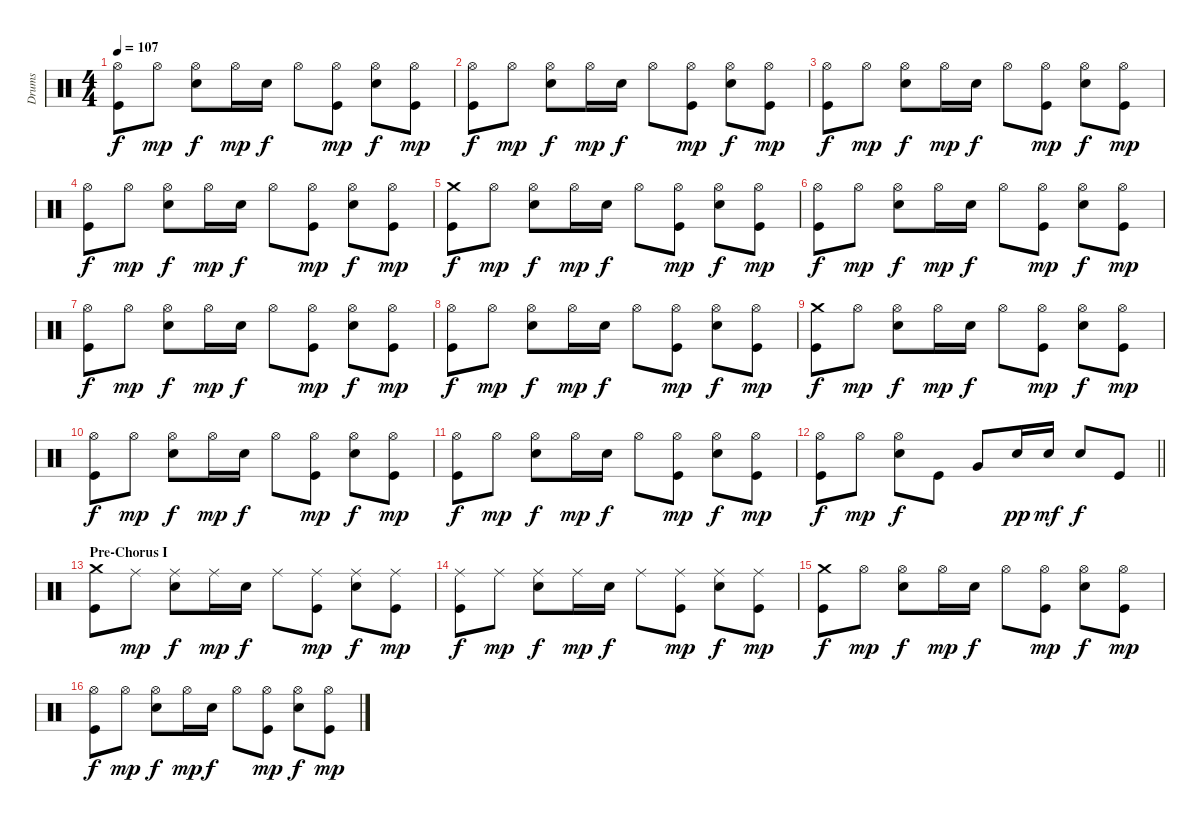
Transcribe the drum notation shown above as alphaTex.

\track ("Drums" "Drums") {instrument percussion}
\staff {score}
\articulation defaults
\ts (4 4)
\tempo 107
\clef neutral
\ks c
("Hi-Hat (open)" "Kick (hit)").8{dy f} "Hi-Hat (open)".8{dy mp} ("Hi-Hat (open)" "Electric Snare (hit)").8{dy f} "Hi-Hat (open)".16{dy mp} "Electric Snare (hit)".16{dy f} "Hi-Hat (open)".8 ("Hi-Hat (open)" "Kick (hit)").8{dy mp} ("Hi-Hat (open)" "Electric Snare (hit)").8{dy f} ("Hi-Hat (open)" "Kick (hit)").8{dy mp} |
("Hi-Hat (open)" "Kick (hit)").8{dy f} "Hi-Hat (open)".8{dy mp} ("Hi-Hat (open)" "Electric Snare (hit)").8{dy f} "Hi-Hat (open)".16{dy mp} "Electric Snare (hit)".16{dy f} "Hi-Hat (open)".8 ("Hi-Hat (open)" "Kick (hit)").8{dy mp} ("Hi-Hat (open)" "Electric Snare (hit)").8{dy f} ("Hi-Hat (open)" "Kick (hit)").8{dy mp} |
("Hi-Hat (open)" "Kick (hit)").8{dy f} "Hi-Hat (open)".8{dy mp} ("Hi-Hat (open)" "Electric Snare (hit)").8{dy f} "Hi-Hat (open)".16{dy mp} "Electric Snare (hit)".16{dy f} "Hi-Hat (open)".8 ("Hi-Hat (open)" "Kick (hit)").8{dy mp} ("Hi-Hat (open)" "Electric Snare (hit)").8{dy f} ("Hi-Hat (open)" "Kick (hit)").8{dy mp} |
("Hi-Hat (open)" "Kick (hit)").8{dy f} "Hi-Hat (open)".8{dy mp} ("Hi-Hat (open)" "Electric Snare (hit)").8{dy f} "Hi-Hat (open)".16{dy mp} "Electric Snare (hit)".16{dy f} "Hi-Hat (open)".8 ("Hi-Hat (open)" "Kick (hit)").8{dy mp} ("Hi-Hat (open)" "Electric Snare (hit)").8{dy f} ("Hi-Hat (open)" "Kick (hit)").8{dy mp} |
("Crash medium (hit)" "Kick (hit)").8{dy f} "Hi-Hat (open)".8{dy mp} ("Hi-Hat (open)" "Electric Snare (hit)").8{dy f} "Hi-Hat (open)".16{dy mp} "Electric Snare (hit)".16{dy f} "Hi-Hat (open)".8 ("Hi-Hat (open)" "Kick (hit)").8{dy mp} ("Hi-Hat (open)" "Electric Snare (hit)").8{dy f} ("Hi-Hat (open)" "Kick (hit)").8{dy mp} |
("Hi-Hat (open)" "Kick (hit)").8{dy f} "Hi-Hat (open)".8{dy mp} ("Hi-Hat (open)" "Electric Snare (hit)").8{dy f} "Hi-Hat (open)".16{dy mp} "Electric Snare (hit)".16{dy f} "Hi-Hat (open)".8 ("Hi-Hat (open)" "Kick (hit)").8{dy mp} ("Hi-Hat (open)" "Electric Snare (hit)").8{dy f} ("Hi-Hat (open)" "Kick (hit)").8{dy mp} |
("Hi-Hat (open)" "Kick (hit)").8{dy f} "Hi-Hat (open)".8{dy mp} ("Hi-Hat (open)" "Electric Snare (hit)").8{dy f} "Hi-Hat (open)".16{dy mp} "Electric Snare (hit)".16{dy f} "Hi-Hat (open)".8 ("Hi-Hat (open)" "Kick (hit)").8{dy mp} ("Hi-Hat (open)" "Electric Snare (hit)").8{dy f} ("Hi-Hat (open)" "Kick (hit)").8{dy mp} |
("Hi-Hat (open)" "Kick (hit)").8{dy f} "Hi-Hat (open)".8{dy mp} ("Hi-Hat (open)" "Electric Snare (hit)").8{dy f} "Hi-Hat (open)".16{dy mp} "Electric Snare (hit)".16{dy f} "Hi-Hat (open)".8 ("Hi-Hat (open)" "Kick (hit)").8{dy mp} ("Hi-Hat (open)" "Electric Snare (hit)").8{dy f} ("Hi-Hat (open)" "Kick (hit)").8{dy mp} |
("Crash medium (hit)" "Kick (hit)").8{dy f} "Hi-Hat (open)".8{dy mp} ("Hi-Hat (open)" "Electric Snare (hit)").8{dy f} "Hi-Hat (open)".16{dy mp} "Electric Snare (hit)".16{dy f} "Hi-Hat (open)".8 ("Hi-Hat (open)" "Kick (hit)").8{dy mp} ("Hi-Hat (open)" "Electric Snare (hit)").8{dy f} ("Hi-Hat (open)" "Kick (hit)").8{dy mp} |
("Hi-Hat (open)" "Kick (hit)").8{dy f} "Hi-Hat (open)".8{dy mp} ("Hi-Hat (open)" "Electric Snare (hit)").8{dy f} "Hi-Hat (open)".16{dy mp} "Electric Snare (hit)".16{dy f} "Hi-Hat (open)".8 ("Hi-Hat (open)" "Kick (hit)").8{dy mp} ("Hi-Hat (open)" "Electric Snare (hit)").8{dy f} ("Hi-Hat (open)" "Kick (hit)").8{dy mp} |
("Hi-Hat (open)" "Kick (hit)").8{dy f} "Hi-Hat (open)".8{dy mp} ("Hi-Hat (open)" "Electric Snare (hit)").8{dy f} "Hi-Hat (open)".16{dy mp} "Electric Snare (hit)".16{dy f} "Hi-Hat (open)".8 ("Hi-Hat (open)" "Kick (hit)").8{dy mp} ("Hi-Hat (open)" "Electric Snare (hit)").8{dy f} ("Hi-Hat (open)" "Kick (hit)").8{dy mp} |
\barLineRight lightlight
("Hi-Hat (open)" "Kick (hit)").8{dy f} "Hi-Hat (open)".8{dy mp} ("Hi-Hat (open)" "Electric Snare (hit)").8{dy f} "Kick (hit)".8 "Very Low Tom (hit)".8 "Electric Snare (hit)".16{dy pp} "Electric Snare (hit)".16{dy mf} "Electric Snare (hit)".8{dy f} "Kick (hit)".8 |
\section ("" "Pre-Chorus I")
("Crash medium (hit)" "Kick (hit)").8 "Ride (middle)".8{dy mp} ("Ride (middle)" "Electric Snare (hit)").8{dy f} "Ride (middle)".16{dy mp} "Electric Snare (hit)".16{dy f} "Ride (middle)".8 ("Ride (middle)" "Kick (hit)").8{dy mp} ("Ride (middle)" "Electric Snare (hit)").8{dy f} ("Ride (middle)" "Kick (hit)").8{dy mp} |
("Ride (middle)" "Kick (hit)").8{dy f} "Ride (middle)".8{dy mp} ("Ride (middle)" "Electric Snare (hit)").8{dy f} "Ride (middle)".16{dy mp} "Electric Snare (hit)".16{dy f} "Ride (middle)".8 ("Ride (middle)" "Kick (hit)").8{dy mp} ("Ride (middle)" "Electric Snare (hit)").8{dy f} ("Ride (middle)" "Kick (hit)").8{dy mp} |
("Crash medium (hit)" "Kick (hit)").8{dy f} "Hi-Hat (open)".8{dy mp} ("Hi-Hat (open)" "Electric Snare (hit)").8{dy f} "Hi-Hat (open)".16{dy mp} "Electric Snare (hit)".16{dy f} "Hi-Hat (open)".8 ("Hi-Hat (open)" "Kick (hit)").8{dy mp} ("Hi-Hat (open)" "Electric Snare (hit)").8{dy f} ("Hi-Hat (open)" "Kick (hit)").8{dy mp} |
("Hi-Hat (open)" "Kick (hit)").8{dy f} "Hi-Hat (open)".8{dy mp} ("Hi-Hat (open)" "Electric Snare (hit)").8{dy f} "Hi-Hat (open)".16{dy mp} "Electric Snare (hit)".16{dy f} "Hi-Hat (open)".8 ("Hi-Hat (open)" "Kick (hit)").8{dy mp} ("Hi-Hat (open)" "Electric Snare (hit)").8{dy f} ("Hi-Hat (open)" "Kick (hit)").8{dy mp}
